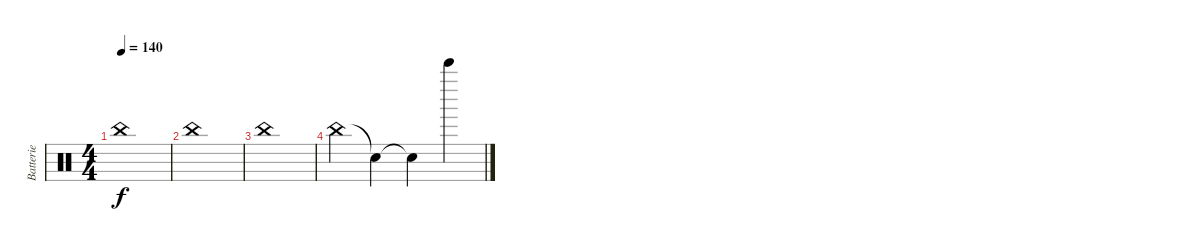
\track ("Batterie" "Batterie") {instrument percussion}
\staff {score}
\articulation defaults
\ts (4 4)
\tempo 140
\clef neutral
\ks c "China (hit)".1{dy f}
|
"China (hit)".1 |
"China (hit)".1 |
"China (hit)".4 "Snare (hit)"{t}.4 "Snare (hit)"{t}.4 "Bell Tree (hit)".4
